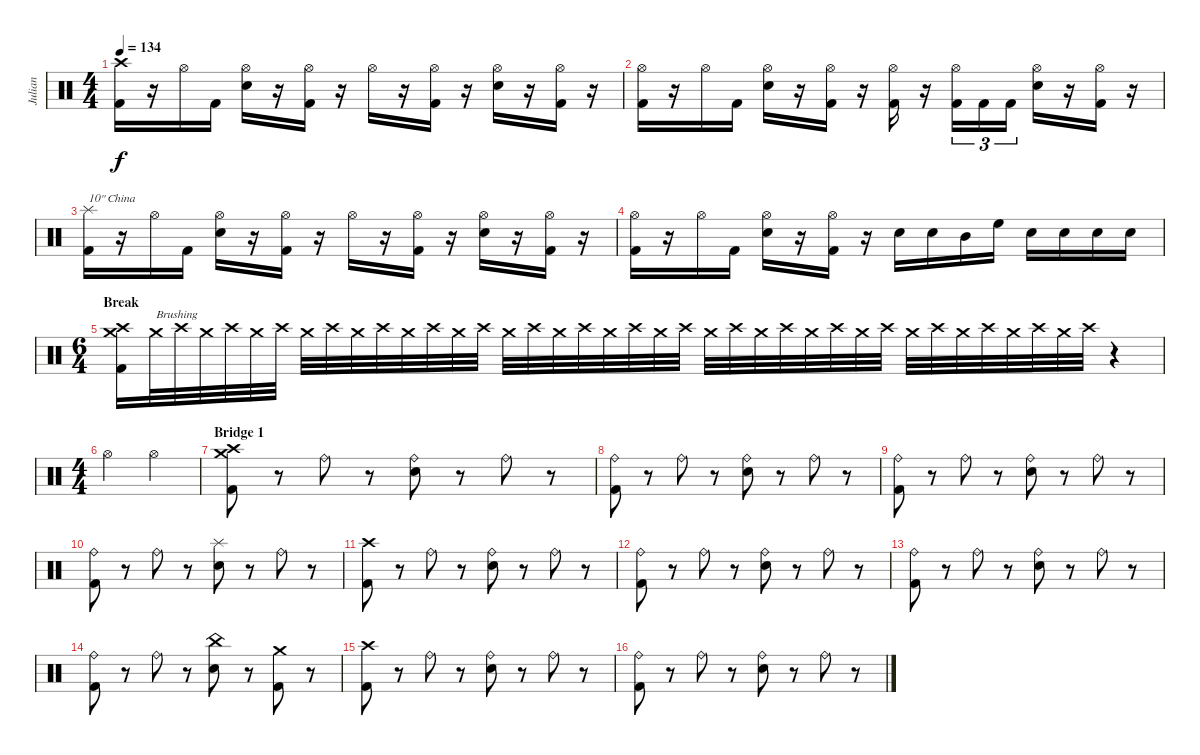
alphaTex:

\track ("Julian" "Julian") {instrument percussion}
\staff {score}
\articulation defaults
\ts (4 4)
\tempo 134
\clef neutral
\ks c
("Crash high (hit)" "Kick (hit) 2").16{dy f} r.16 "Hi-Hat (open)".16 "Kick (hit) 2".16 ("Hi-Hat (open)" "Electric Snare (hit)").16 r.16 ("Hi-Hat (open)" "Kick (hit) 2").16 r.16 "Hi-Hat (open)".16 r.16 ("Hi-Hat (open)" "Kick (hit) 2").16 r.16 ("Hi-Hat (open)" "Electric Snare (hit)").16 r.16 ("Hi-Hat (open)" "Kick (hit) 2").16 r.16 |
("Hi-Hat (open)" "Kick (hit) 2").16 r.16 "Hi-Hat (open)".16 "Kick (hit) 2".16 ("Hi-Hat (open)" "Electric Snare (hit)").16 r.16 ("Hi-Hat (open)" "Kick (hit) 2").16 r.16 ("Hi-Hat (open)" "Kick (hit) 2").16 r.16 ("Hi-Hat (open)" "Kick (hit) 2").16{tu (3 2)} "Kick (hit) 2".16{tu (3 2)} "Kick (hit) 2".16{tu (3 2)} ("Hi-Hat (open)" "Electric Snare (hit)").16 r.16 ("Hi-Hat (open)" "Kick (hit) 2").16 r.16 |
("Splash (hit)" "Kick (hit) 2").16{txt "10\" China"} r.16 "Hi-Hat (open)".16 "Kick (hit) 2".16 ("Hi-Hat (open)" "Electric Snare (hit)").16 r.16 ("Hi-Hat (open)" "Kick (hit) 2").16 r.16 "Hi-Hat (open)".16 r.16 ("Hi-Hat (open)" "Kick (hit) 2").16 r.16 ("Hi-Hat (open)" "Electric Snare (hit)").16 r.16 ("Hi-Hat (open)" "Kick (hit) 2").16 r.16 |
("Hi-Hat (open)" "Kick (hit) 2").16 r.16 "Hi-Hat (open)".16 "Kick (hit) 2".16 ("Hi-Hat (open)" "Electric Snare (hit)").16 r.16 ("Hi-Hat (open)" "Kick (hit) 2").16 r.16 "Electric Snare (hit)".16 "Electric Snare (hit)".16 "Mid Tom (hit)".16 "High Floor Tom (hit)".16 "Electric Snare (hit)".16 "Electric Snare (hit)".16 "Electric Snare (hit)".16 "Electric Snare (hit)".16 |
\ts (6 4)
\section ("" "Break")
("Crash high (hit)" "Crash medium (hit)" "Kick (hit) 2").16 "Crash medium (hit)".32{txt "Brushing"} "Crash high (hit)".32 "Crash medium (hit)".32 "Crash high (hit)".32 "Crash medium (hit)".32 "Crash high (hit)".32 "Crash medium (hit)".32 "Crash high (hit)".32 "Crash medium (hit)".32 "Crash high (hit)".32 "Crash medium (hit)".32 "Crash high (hit)".32 "Crash medium (hit)".32 "Crash high (hit)".32 "Crash medium (hit)".32 "Crash high (hit)".32 "Crash medium (hit)".32 "Crash high (hit)".32 "Crash medium (hit)".32 "Crash high (hit)".32 "Crash medium (hit)".32 "Crash high (hit)".32 "Crash medium (hit)".32 "Crash high (hit)".32 "Crash medium (hit)".32 "Crash high (hit)".32 "Crash medium (hit)".32 "Crash high (hit)".32 "Crash medium (hit)".32 "Crash high (hit)".32 "Crash medium (hit)".32 "Crash high (hit)".32 "Crash medium (hit)".32 "Crash high (hit)".32 "Crash medium (hit)".32 "Crash high (hit)".32 "Crash medium (hit)".32 "Crash high (hit)".32 r.4 |
\ts (4 4)
"Hi-Hat (open)".2 "Hi-Hat (open)".2 |
\section ("" "Bridge 1")
("Crash high (hit)" "Crash medium (hit)" "Kick (hit) 2").8 r.8 "Ride (bell)".8 r.8 ("Ride (bell)" "Electric Snare (hit)").8 r.8 "Ride (bell)".8 r.8 |
("Ride (bell)" "Kick (hit) 2").8 r.8 "Ride (bell)".8 r.8 ("Ride (bell)" "Electric Snare (hit)").8 r.8 "Ride (bell)".8 r.8 |
("Ride (bell)" "Kick (hit) 2").8 r.8 "Ride (bell)".8 r.8 ("Ride (bell)" "Electric Snare (hit)").8 r.8 "Ride (bell)".8 r.8 |
("Ride (bell)" "Kick (hit) 2").8 r.8 "Ride (bell)".8 r.8 ("Splash (hit)" "Electric Snare (hit)").8 r.8 "Ride (bell)".8 r.8 |
("Crash high (hit)" "Kick (hit) 2").8 r.8 "Ride (bell)".8 r.8 ("Ride (bell)" "Electric Snare (hit)").8 r.8 "Ride (bell)".8 r.8 |
("Ride (bell)" "Kick (hit) 2").8 r.8 "Ride (bell)".8 r.8 ("Ride (bell)" "Electric Snare (hit)").8 r.8 "Ride (bell)".8 r.8 |
("Ride (bell)" "Kick (hit) 2").8 r.8 "Ride (bell)".8 r.8 ("Ride (bell)" "Electric Snare (hit)").8 r.8 "Ride (bell)".8 r.8 |
("Ride (bell)" "Kick (hit) 2").8 r.8 "Ride (bell)".8 r.8 ("China (hit)" "Electric Snare (hit)").8 r.8 ("Crash medium (hit)" "Kick (hit) 2").8 r.8 |
("Crash high (hit)" "Kick (hit) 2").8 r.8 "Ride (bell)".8 r.8 ("Ride (bell)" "Electric Snare (hit)").8 r.8 "Ride (bell)".8 r.8 |
("Ride (bell)" "Kick (hit) 2").8 r.8 "Ride (bell)".8 r.8 ("Ride (bell)" "Electric Snare (hit)").8 r.8 "Ride (bell)".8 r.8
